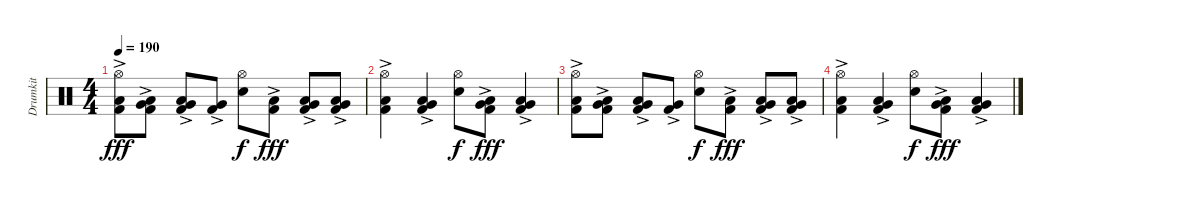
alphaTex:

\track ("Drumkit" "Drumkit") {instrument percussion}
\staff {score}
\articulation defaults
\ts (4 4)
\tempo 190
\clef neutral
\ks c
("Hi-Hat (open)" "Low Tom (hit)"{ac} "Kick (hit) 2").8{dy fff} ("Low Tom (hit)"{ac} "Very Low Tom (hit)"{ac} "Kick (hit) 2").8 ("Very Low Tom (hit)"{ac} "Low Floor Tom (hit)"{ac} "Kick (hit) 2").8 ("Very Low Tom (hit)"{ac} "Kick (hit) 2").8 ("Hi-Hat (open)" "Snare (hit) 2").8{dy f} ("Low Tom (hit)"{ac} "Kick (hit) 2").8{dy fff} ("Low Tom (hit)"{ac} "Very Low Tom (hit)"{ac} "Kick (hit) 2").8 ("Very Low Tom (hit)"{ac} "Low Floor Tom (hit)"{ac} "Kick (hit) 2").8 |
("Hi-Hat (open)" "Low Floor Tom (hit)"{ac} "Kick (hit) 2").4 ("Very Low Tom (hit)"{ac} "Low Floor Tom (hit)"{ac} "Kick (hit) 2").4 ("Hi-Hat (open)" "Snare (hit) 2").8{dy f} ("Very Low Tom (hit)"{ac} "Low Floor Tom (hit)"{ac} "Kick (hit) 2").8{dy fff} ("Very Low Tom (hit)"{ac} "Low Tom (hit)"{ac} "Kick (hit) 2").4 |
("Hi-Hat (open)" "Low Tom (hit)"{ac} "Kick (hit) 2").8 ("Low Tom (hit)"{ac} "Very Low Tom (hit)"{ac} "Kick (hit) 2").8 ("Very Low Tom (hit)"{ac} "Low Floor Tom (hit)"{ac} "Kick (hit) 2").8 ("Very Low Tom (hit)"{ac} "Kick (hit) 2").8 ("Hi-Hat (open)" "Snare (hit) 2").8{dy f} ("Low Tom (hit)"{ac} "Kick (hit) 2").8{dy fff} ("Low Tom (hit)"{ac} "Very Low Tom (hit)"{ac} "Kick (hit) 2").8 ("Very Low Tom (hit)"{ac} "Low Floor Tom (hit)"{ac} "Kick (hit) 2").8 |
("Hi-Hat (open)" "Low Floor Tom (hit)"{ac} "Kick (hit) 2").4 ("Very Low Tom (hit)"{ac} "Low Floor Tom (hit)"{ac} "Kick (hit) 2").4 ("Hi-Hat (open)" "Snare (hit) 2").8{dy f} ("Very Low Tom (hit)"{ac} "Low Floor Tom (hit)"{ac} "Kick (hit) 2").8{dy fff} ("Very Low Tom (hit)"{ac} "Low Tom (hit)"{ac} "Kick (hit) 2").4
